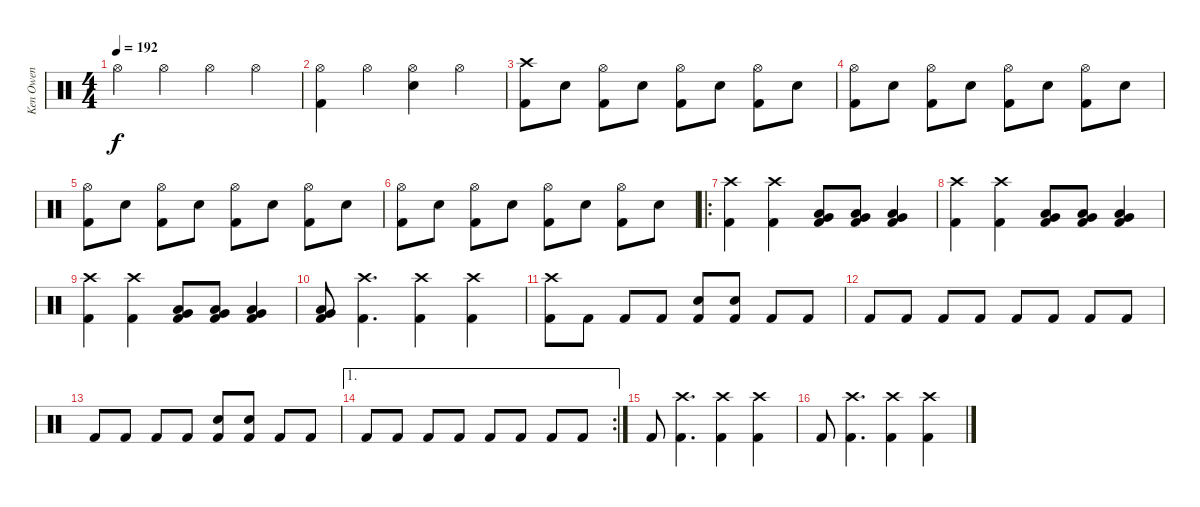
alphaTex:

\track ("Ken Owen" "Ken Owen") {instrument percussion}
\staff {score}
\articulation defaults
\ts (4 4)
\tempo 192
\clef neutral
\ks c "Hi-Hat (open)".4{dy f} "Hi-Hat (open)".4 "Hi-Hat (open)".4 "Hi-Hat (open)".4
|
("Hi-Hat (open)" "Kick (hit) 2").4 "Hi-Hat (open)".4 ("Hi-Hat (open)" "Snare (hit) 2").4 "Hi-Hat (open)".4 |
("Crash high (hit)" "Kick (hit) 2").8 "Snare (hit) 2".8 ("Hi-Hat (open)" "Kick (hit) 2").8 "Snare (hit) 2".8 ("Hi-Hat (open)" "Kick (hit) 2").8 "Snare (hit) 2".8 ("Hi-Hat (open)" "Kick (hit) 2").8 "Snare (hit) 2".8 |
("Hi-Hat (open)" "Kick (hit) 2").8 "Snare (hit) 2".8 ("Hi-Hat (open)" "Kick (hit) 2").8 "Snare (hit) 2".8 ("Hi-Hat (open)" "Kick (hit) 2").8 "Snare (hit) 2".8 ("Hi-Hat (open)" "Kick (hit) 2").8 "Snare (hit) 2".8 |
("Hi-Hat (open)" "Kick (hit) 2").8 "Snare (hit) 2".8 ("Hi-Hat (open)" "Kick (hit) 2").8 "Snare (hit) 2".8 ("Hi-Hat (open)" "Kick (hit) 2").8 "Snare (hit) 2".8 ("Hi-Hat (open)" "Kick (hit) 2").8 "Snare (hit) 2".8 |
("Hi-Hat (open)" "Kick (hit) 2").8 "Snare (hit) 2".8 ("Hi-Hat (open)" "Kick (hit) 2").8 "Snare (hit) 2".8 ("Hi-Hat (open)" "Kick (hit) 2").8 "Snare (hit) 2".8 ("Hi-Hat (open)" "Kick (hit) 2").8 "Snare (hit) 2".8 |
\ro
("Crash high (hit)" "Kick (hit) 2").4 ("Crash high (hit)" "Kick (hit) 2").4 ("Very Low Tom (hit)" "Low Tom (hit)" "Kick (hit) 2").8 ("Very Low Tom (hit)" "Low Tom (hit)" "Kick (hit) 2").8 ("Very Low Tom (hit)" "Low Tom (hit)" "Kick (hit) 2").4 |
("Crash high (hit)" "Kick (hit) 2").4 ("Crash high (hit)" "Kick (hit) 2").4 ("Very Low Tom (hit)" "Low Tom (hit)" "Kick (hit) 2").8 ("Very Low Tom (hit)" "Low Tom (hit)" "Kick (hit) 2").8 ("Very Low Tom (hit)" "Low Tom (hit)" "Kick (hit) 2").4 |
("Crash high (hit)" "Kick (hit) 2").4 ("Crash high (hit)" "Kick (hit) 2").4 ("Very Low Tom (hit)" "Low Tom (hit)" "Kick (hit) 2").8 ("Very Low Tom (hit)" "Low Tom (hit)" "Kick (hit) 2").8 ("Very Low Tom (hit)" "Low Tom (hit)" "Kick (hit) 2").4 |
("Very Low Tom (hit)" "Low Tom (hit)" "Kick (hit) 2").8 ("Crash high (hit)" "Kick (hit) 2").4{d} ("Crash high (hit)" "Kick (hit) 2").4 ("Crash high (hit)" "Kick (hit) 2").4 |
("Crash high (hit)" "Kick (hit) 2").8 "Kick (hit) 2".8 "Kick (hit) 2".8 "Kick (hit) 2".8 ("Snare (hit) 2" "Kick (hit) 2").8 ("Snare (hit) 2" "Kick (hit) 2").8 "Kick (hit) 2".8 "Kick (hit) 2".8 |
"Kick (hit) 2".8 "Kick (hit) 2".8 "Kick (hit) 2".8 "Kick (hit) 2".8 "Kick (hit) 2".8 "Kick (hit) 2".8 "Kick (hit) 2".8 "Kick (hit) 2".8 |
"Kick (hit) 2".8 "Kick (hit) 2".8 "Kick (hit) 2".8 "Kick (hit) 2".8 ("Snare (hit) 2" "Kick (hit) 2").8 ("Snare (hit) 2" "Kick (hit) 2").8 "Kick (hit) 2".8 "Kick (hit) 2".8 |
\ae 1
\rc 2 "Kick (hit) 2".8 "Kick (hit) 2".8 "Kick (hit) 2".8 "Kick (hit) 2".8 "Kick (hit) 2".8 "Kick (hit) 2".8 "Kick (hit) 2".8 "Kick (hit) 2".8
|
"Kick (hit) 2".8 ("Crash high (hit)" "Kick (hit) 2").4{d} ("Crash high (hit)" "Kick (hit) 2").4 ("Crash high (hit)" "Kick (hit) 2").4 |
"Kick (hit) 2".8 ("Crash high (hit)" "Kick (hit) 2").4{d} ("Crash high (hit)" "Kick (hit) 2").4 ("Crash high (hit)" "Kick (hit) 2").4
